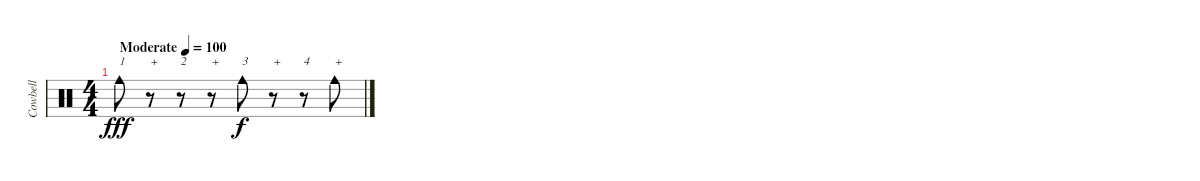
\track ("Cowbell" "Cowbell") {instrument percussion}
\staff {score}
\articulation defaults
\ts (4 4)
\tempo (100 "Moderate")
\clef neutral
\ks c "Cowbell medium (hit)".8{txt "1" dy fff}
r.8{txt "+"} r.8{txt "2"} r.8{txt "+"} "Cowbell medium (hit)".8{txt "3" dy f} r.8{txt "+"} r.8{txt "4"} "Cowbell medium (hit)".8{txt "+"}
